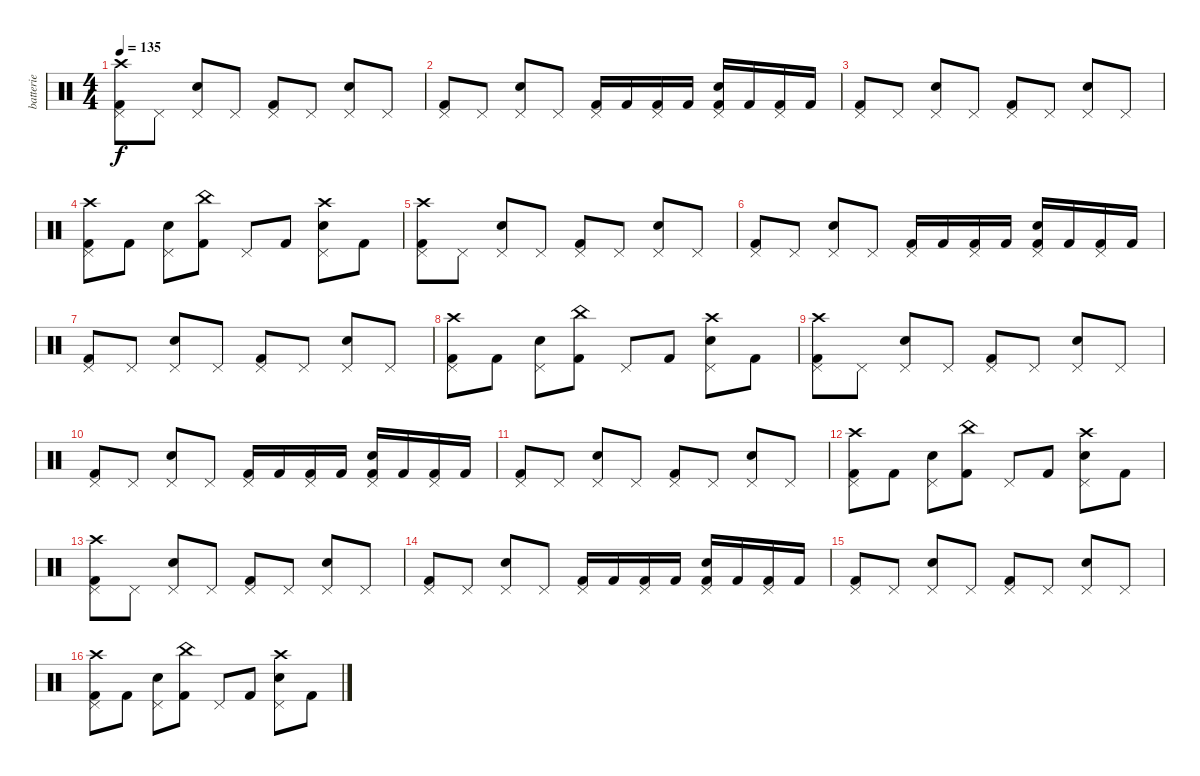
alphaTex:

\track ("batterie" "batterie") {instrument percussion}
\staff {score}
\articulation defaults
\ts (4 4)
\tempo 135
\clef neutral
\ks c
("Crash high (hit)" "Kick (hit) 2" "Pedal Hi-Hat (hit)").8{dy f} "Pedal Hi-Hat (hit)".8 ("Snare (hit) 2" "Pedal Hi-Hat (hit)").8 "Pedal Hi-Hat (hit)".8 ("Kick (hit) 2" "Pedal Hi-Hat (hit)").8 "Pedal Hi-Hat (hit)".8 ("Snare (hit) 2" "Pedal Hi-Hat (hit)").8 "Pedal Hi-Hat (hit)".8 |
("Kick (hit) 2" "Pedal Hi-Hat (hit)").8 "Pedal Hi-Hat (hit)".8 ("Snare (hit) 2" "Pedal Hi-Hat (hit)").8 "Pedal Hi-Hat (hit)".8 ("Kick (hit) 2" "Pedal Hi-Hat (hit)").16 "Kick (hit) 2".16 ("Kick (hit) 2" "Pedal Hi-Hat (hit)").16 "Kick (hit) 2".16 ("Snare (hit) 2" "Kick (hit) 2" "Pedal Hi-Hat (hit)").16 "Kick (hit) 2".16 ("Kick (hit) 2" "Pedal Hi-Hat (hit)").16 "Kick (hit) 2".16 |
("Kick (hit) 2" "Pedal Hi-Hat (hit)").8 "Pedal Hi-Hat (hit)".8 ("Snare (hit) 2" "Pedal Hi-Hat (hit)").8 "Pedal Hi-Hat (hit)".8 ("Kick (hit) 2" "Pedal Hi-Hat (hit)").8 "Pedal Hi-Hat (hit)".8 ("Snare (hit) 2" "Pedal Hi-Hat (hit)").8 "Pedal Hi-Hat (hit)".8 |
("Crash high (hit)" "Kick (hit) 2" "Pedal Hi-Hat (hit)").8 "Kick (hit) 2".8 ("Snare (hit) 2" "Pedal Hi-Hat (hit)").8 ("China (hit)" "Kick (hit) 2").8 "Pedal Hi-Hat (hit)".8 "Kick (hit) 2".8 ("Crash high (hit)" "Snare (hit) 2" "Pedal Hi-Hat (hit)").8 "Kick (hit) 2".8 |
("Crash high (hit)" "Kick (hit) 2" "Pedal Hi-Hat (hit)").8 "Pedal Hi-Hat (hit)".8 ("Snare (hit) 2" "Pedal Hi-Hat (hit)").8 "Pedal Hi-Hat (hit)".8 ("Kick (hit) 2" "Pedal Hi-Hat (hit)").8 "Pedal Hi-Hat (hit)".8 ("Snare (hit) 2" "Pedal Hi-Hat (hit)").8 "Pedal Hi-Hat (hit)".8 |
("Kick (hit) 2" "Pedal Hi-Hat (hit)").8 "Pedal Hi-Hat (hit)".8 ("Snare (hit) 2" "Pedal Hi-Hat (hit)").8 "Pedal Hi-Hat (hit)".8 ("Kick (hit) 2" "Pedal Hi-Hat (hit)").16 "Kick (hit) 2".16 ("Kick (hit) 2" "Pedal Hi-Hat (hit)").16 "Kick (hit) 2".16 ("Snare (hit) 2" "Kick (hit) 2" "Pedal Hi-Hat (hit)").16 "Kick (hit) 2".16 ("Kick (hit) 2" "Pedal Hi-Hat (hit)").16 "Kick (hit) 2".16 |
("Kick (hit) 2" "Pedal Hi-Hat (hit)").8 "Pedal Hi-Hat (hit)".8 ("Snare (hit) 2" "Pedal Hi-Hat (hit)").8 "Pedal Hi-Hat (hit)".8 ("Kick (hit) 2" "Pedal Hi-Hat (hit)").8 "Pedal Hi-Hat (hit)".8 ("Snare (hit) 2" "Pedal Hi-Hat (hit)").8 "Pedal Hi-Hat (hit)".8 |
("Crash high (hit)" "Kick (hit) 2" "Pedal Hi-Hat (hit)").8 "Kick (hit) 2".8 ("Snare (hit) 2" "Pedal Hi-Hat (hit)").8 ("China (hit)" "Kick (hit) 2").8 "Pedal Hi-Hat (hit)".8 "Kick (hit) 2".8 ("Crash high (hit)" "Snare (hit) 2" "Pedal Hi-Hat (hit)").8 "Kick (hit) 2".8 |
("Crash high (hit)" "Kick (hit) 2" "Pedal Hi-Hat (hit)").8 "Pedal Hi-Hat (hit)".8 ("Snare (hit) 2" "Pedal Hi-Hat (hit)").8 "Pedal Hi-Hat (hit)".8 ("Kick (hit) 2" "Pedal Hi-Hat (hit)").8 "Pedal Hi-Hat (hit)".8 ("Snare (hit) 2" "Pedal Hi-Hat (hit)").8 "Pedal Hi-Hat (hit)".8 |
("Kick (hit) 2" "Pedal Hi-Hat (hit)").8 "Pedal Hi-Hat (hit)".8 ("Snare (hit) 2" "Pedal Hi-Hat (hit)").8 "Pedal Hi-Hat (hit)".8 ("Kick (hit) 2" "Pedal Hi-Hat (hit)").16 "Kick (hit) 2".16 ("Kick (hit) 2" "Pedal Hi-Hat (hit)").16 "Kick (hit) 2".16 ("Snare (hit) 2" "Kick (hit) 2" "Pedal Hi-Hat (hit)").16 "Kick (hit) 2".16 ("Kick (hit) 2" "Pedal Hi-Hat (hit)").16 "Kick (hit) 2".16 |
("Kick (hit) 2" "Pedal Hi-Hat (hit)").8 "Pedal Hi-Hat (hit)".8 ("Snare (hit) 2" "Pedal Hi-Hat (hit)").8 "Pedal Hi-Hat (hit)".8 ("Kick (hit) 2" "Pedal Hi-Hat (hit)").8 "Pedal Hi-Hat (hit)".8 ("Snare (hit) 2" "Pedal Hi-Hat (hit)").8 "Pedal Hi-Hat (hit)".8 |
("Crash high (hit)" "Kick (hit) 2" "Pedal Hi-Hat (hit)").8 "Kick (hit) 2".8 ("Snare (hit) 2" "Pedal Hi-Hat (hit)").8 ("China (hit)" "Kick (hit) 2").8 "Pedal Hi-Hat (hit)".8 "Kick (hit) 2".8 ("Crash high (hit)" "Snare (hit) 2" "Pedal Hi-Hat (hit)").8 "Kick (hit) 2".8 |
("Crash high (hit)" "Kick (hit) 2" "Pedal Hi-Hat (hit)").8 "Pedal Hi-Hat (hit)".8 ("Snare (hit) 2" "Pedal Hi-Hat (hit)").8 "Pedal Hi-Hat (hit)".8 ("Kick (hit) 2" "Pedal Hi-Hat (hit)").8 "Pedal Hi-Hat (hit)".8 ("Snare (hit) 2" "Pedal Hi-Hat (hit)").8 "Pedal Hi-Hat (hit)".8 |
("Kick (hit) 2" "Pedal Hi-Hat (hit)").8 "Pedal Hi-Hat (hit)".8 ("Snare (hit) 2" "Pedal Hi-Hat (hit)").8 "Pedal Hi-Hat (hit)".8 ("Kick (hit) 2" "Pedal Hi-Hat (hit)").16 "Kick (hit) 2".16 ("Kick (hit) 2" "Pedal Hi-Hat (hit)").16 "Kick (hit) 2".16 ("Snare (hit) 2" "Kick (hit) 2" "Pedal Hi-Hat (hit)").16 "Kick (hit) 2".16 ("Kick (hit) 2" "Pedal Hi-Hat (hit)").16 "Kick (hit) 2".16 |
("Kick (hit) 2" "Pedal Hi-Hat (hit)").8 "Pedal Hi-Hat (hit)".8 ("Snare (hit) 2" "Pedal Hi-Hat (hit)").8 "Pedal Hi-Hat (hit)".8 ("Kick (hit) 2" "Pedal Hi-Hat (hit)").8 "Pedal Hi-Hat (hit)".8 ("Snare (hit) 2" "Pedal Hi-Hat (hit)").8 "Pedal Hi-Hat (hit)".8 |
("Crash high (hit)" "Kick (hit) 2" "Pedal Hi-Hat (hit)").8 "Kick (hit) 2".8 ("Snare (hit) 2" "Pedal Hi-Hat (hit)").8 ("China (hit)" "Kick (hit) 2").8 "Pedal Hi-Hat (hit)".8 "Kick (hit) 2".8 ("Crash high (hit)" "Snare (hit) 2" "Pedal Hi-Hat (hit)").8 "Kick (hit) 2".8
